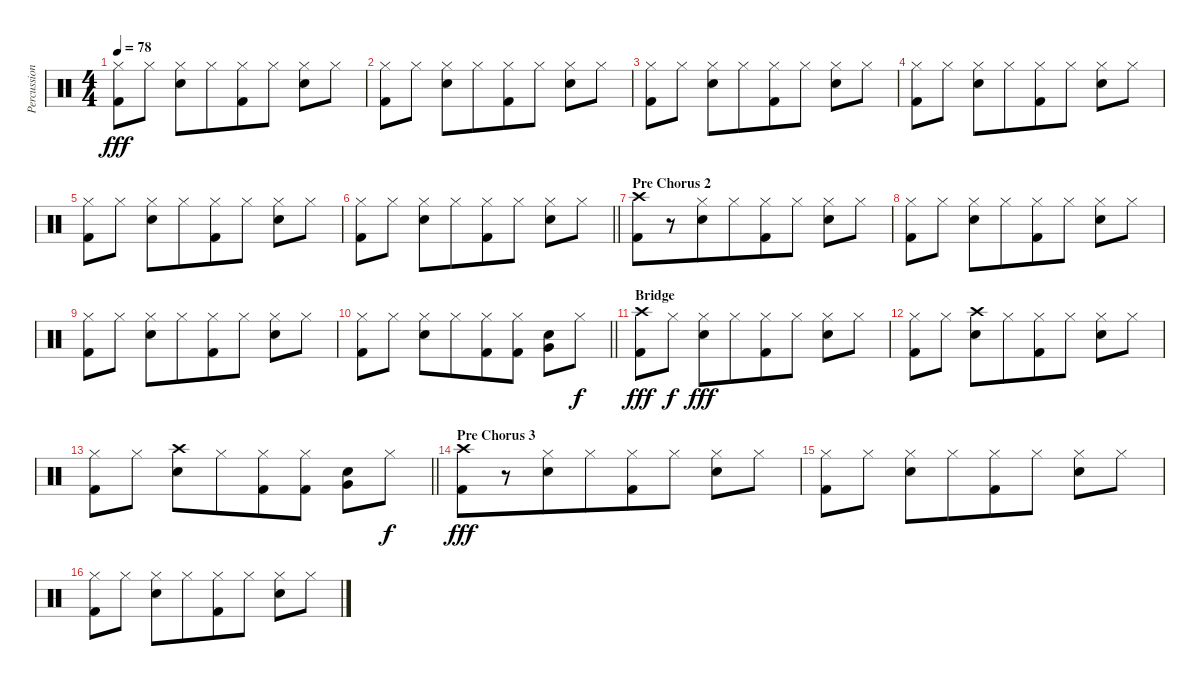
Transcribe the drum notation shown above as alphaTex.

\track ("Percussion" "Percussion") {instrument percussion}
\staff {score}
\articulation defaults
\ts (4 4)
\tempo 78
\clef neutral
\ks c
("Kick (hit) 2" "Hi-Hat (closed)").8{dy fff beam merge} "Hi-Hat (closed)".8 ("Electric Snare (hit)" "Hi-Hat (closed)").8 "Hi-Hat (closed)".8{beam merge} ("Kick (hit) 2" "Hi-Hat (closed)").8 "Hi-Hat (closed)".8 ("Electric Snare (hit)" "Hi-Hat (closed)").8{beam merge} "Hi-Hat (closed)".8 |
("Kick (hit) 2" "Hi-Hat (closed)").8{beam merge} "Hi-Hat (closed)".8 ("Electric Snare (hit)" "Hi-Hat (closed)").8 "Hi-Hat (closed)".8{beam merge} ("Kick (hit) 2" "Hi-Hat (closed)").8 "Hi-Hat (closed)".8 ("Electric Snare (hit)" "Hi-Hat (closed)").8{beam merge} "Hi-Hat (closed)".8 |
("Kick (hit) 2" "Hi-Hat (closed)").8{beam merge} "Hi-Hat (closed)".8 ("Electric Snare (hit)" "Hi-Hat (closed)").8 "Hi-Hat (closed)".8{beam merge} ("Kick (hit) 2" "Hi-Hat (closed)").8 "Hi-Hat (closed)".8 ("Electric Snare (hit)" "Hi-Hat (closed)").8{beam merge} "Hi-Hat (closed)".8 |
("Kick (hit) 2" "Hi-Hat (closed)").8{beam merge} "Hi-Hat (closed)".8 ("Electric Snare (hit)" "Hi-Hat (closed)").8 "Hi-Hat (closed)".8{beam merge} ("Kick (hit) 2" "Hi-Hat (closed)").8 "Hi-Hat (closed)".8 ("Electric Snare (hit)" "Hi-Hat (closed)").8{beam merge} "Hi-Hat (closed)".8 |
("Kick (hit) 2" "Hi-Hat (closed)").8{beam merge} "Hi-Hat (closed)".8 ("Electric Snare (hit)" "Hi-Hat (closed)").8 "Hi-Hat (closed)".8{beam merge} ("Kick (hit) 2" "Hi-Hat (closed)").8 "Hi-Hat (closed)".8 ("Electric Snare (hit)" "Hi-Hat (closed)").8{beam merge} "Hi-Hat (closed)".8 |
\barLineRight lightlight
("Kick (hit) 2" "Hi-Hat (closed)").8{beam merge} "Hi-Hat (closed)".8 ("Electric Snare (hit)" "Hi-Hat (closed)").8 "Hi-Hat (closed)".8{beam merge} ("Kick (hit) 2" "Hi-Hat (closed)").8 "Hi-Hat (closed)".8 ("Electric Snare (hit)" "Hi-Hat (closed)").8{beam merge} "Hi-Hat (closed)".8 |
\section ("" "Pre Chorus 2")
("Kick (hit) 2" "Crash high (hit)").8{beam merge} r.8 ("Electric Snare (hit)" "Hi-Hat (closed)").8 "Hi-Hat (closed)".8{beam merge} ("Kick (hit) 2" "Hi-Hat (closed)").8 "Hi-Hat (closed)".8 ("Electric Snare (hit)" "Hi-Hat (closed)").8{beam merge} "Hi-Hat (closed)".8 |
("Kick (hit) 2" "Hi-Hat (closed)").8{beam merge} "Hi-Hat (closed)".8 ("Electric Snare (hit)" "Hi-Hat (closed)").8 "Hi-Hat (closed)".8{beam merge} ("Kick (hit) 2" "Hi-Hat (closed)").8 "Hi-Hat (closed)".8 ("Electric Snare (hit)" "Hi-Hat (closed)").8{beam merge} "Hi-Hat (closed)".8 |
("Kick (hit) 2" "Hi-Hat (closed)").8{beam merge} "Hi-Hat (closed)".8 ("Electric Snare (hit)" "Hi-Hat (closed)").8 "Hi-Hat (closed)".8{beam merge} ("Kick (hit) 2" "Hi-Hat (closed)").8 "Hi-Hat (closed)".8 ("Electric Snare (hit)" "Hi-Hat (closed)").8{beam merge} "Hi-Hat (closed)".8 |
\barLineRight lightlight
("Kick (hit) 2" "Hi-Hat (closed)").8{beam merge} "Hi-Hat (closed)".8 ("Electric Snare (hit)" "Hi-Hat (closed)").8 "Hi-Hat (closed)".8{beam merge} ("Kick (hit) 2" "Hi-Hat (closed)").8 ("Kick (hit) 2" "Hi-Hat (closed)").8 ("Very Low Tom (hit)" "Electric Snare (hit)").8{beam merge} "Hi-Hat (closed)".8{dy f} |
\section ("" "Bridge")
("Kick (hit) 2" "Crash high (hit)").8{dy fff beam merge} "Hi-Hat (closed)".8{dy f} ("Electric Snare (hit)" "Hi-Hat (closed)").8{dy fff} "Hi-Hat (closed)".8{beam merge} ("Kick (hit) 2" "Hi-Hat (closed)").8 "Hi-Hat (closed)".8 ("Electric Snare (hit)" "Hi-Hat (closed)").8{beam merge} "Hi-Hat (closed)".8 |
("Kick (hit) 2" "Hi-Hat (closed)").8{beam merge} "Hi-Hat (closed)".8 ("Electric Snare (hit)" "Crash high (hit)").8 "Hi-Hat (closed)".8{beam merge} ("Kick (hit) 2" "Hi-Hat (closed)").8 "Hi-Hat (closed)".8 ("Electric Snare (hit)" "Hi-Hat (closed)").8{beam merge} "Hi-Hat (closed)".8 |
\barLineRight lightlight
("Kick (hit) 2" "Hi-Hat (closed)").8{beam merge} "Hi-Hat (closed)".8 ("Electric Snare (hit)" "Crash high (hit)").8 "Hi-Hat (closed)".8{beam merge} ("Kick (hit) 2" "Hi-Hat (closed)").8 ("Kick (hit) 2" "Hi-Hat (closed)").8 ("Very Low Tom (hit)" "Electric Snare (hit)").8{beam merge} "Hi-Hat (closed)".8{dy f} |
\section ("" "Pre Chorus 3")
("Kick (hit) 2" "Crash high (hit)").8{dy fff beam merge} r.8 ("Electric Snare (hit)" "Hi-Hat (closed)").8 "Hi-Hat (closed)".8{beam merge} ("Kick (hit) 2" "Hi-Hat (closed)").8 "Hi-Hat (closed)".8 ("Electric Snare (hit)" "Hi-Hat (closed)").8{beam merge} "Hi-Hat (closed)".8 |
("Kick (hit) 2" "Hi-Hat (closed)").8{beam merge} "Hi-Hat (closed)".8 ("Electric Snare (hit)" "Hi-Hat (closed)").8 "Hi-Hat (closed)".8{beam merge} ("Kick (hit) 2" "Hi-Hat (closed)").8 "Hi-Hat (closed)".8 ("Electric Snare (hit)" "Hi-Hat (closed)").8{beam merge} "Hi-Hat (closed)".8 |
("Kick (hit) 2" "Hi-Hat (closed)").8{beam merge} "Hi-Hat (closed)".8 ("Electric Snare (hit)" "Hi-Hat (closed)").8 "Hi-Hat (closed)".8{beam merge} ("Kick (hit) 2" "Hi-Hat (closed)").8 "Hi-Hat (closed)".8 ("Electric Snare (hit)" "Hi-Hat (closed)").8{beam merge} "Hi-Hat (closed)".8
